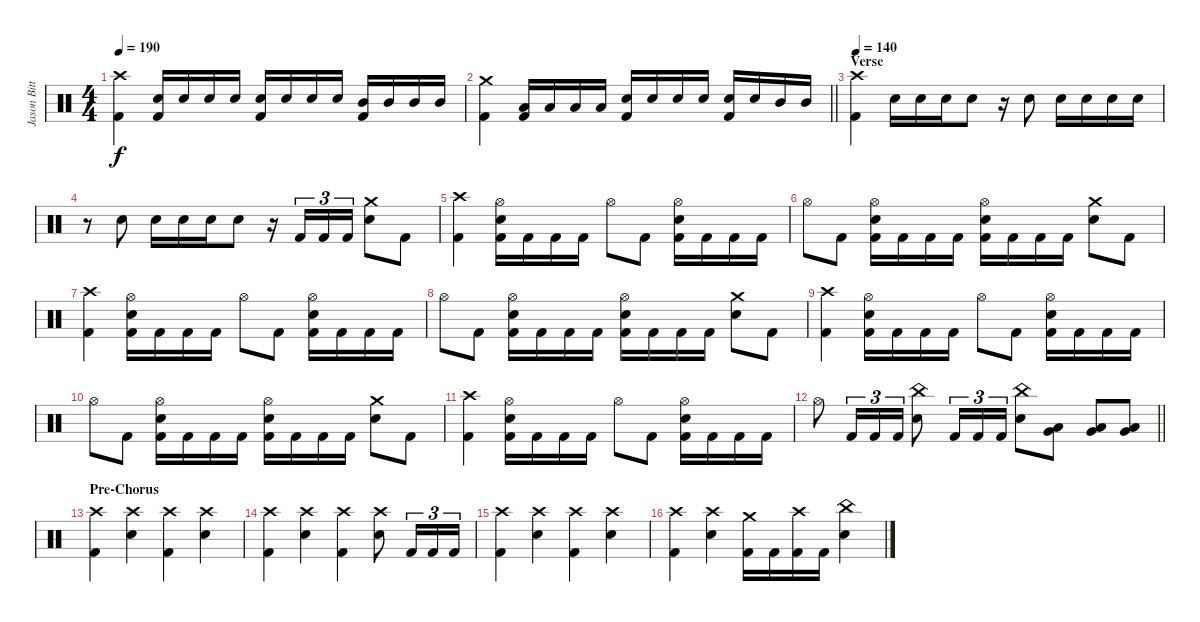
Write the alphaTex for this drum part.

\track ("Jason Bittner" "Jason Bitt") {instrument percussion}
\staff {score}
\articulation defaults
\ts (4 4)
\tempo 190
\clef neutral
\ks c
("Crash high (hit)" "Kick (hit) 2").4{dy f} ("Electric Snare (hit)" "Kick (hit) 2").16 "Electric Snare (hit)".16 "Electric Snare (hit)".16 "Electric Snare (hit)".16 ("Electric Snare (hit)" "Kick (hit) 2").16 "Electric Snare (hit)".16 "Electric Snare (hit)".16 "Electric Snare (hit)".16 ("Mid Tom (hit)" "Kick (hit) 2").16 "Mid Tom (hit)".16 "Mid Tom (hit)".16 "Mid Tom (hit)".16 |
\barLineRight lightlight
("Crash medium (hit)" "Kick (hit) 2").4 ("Low Tom (hit)" "Kick (hit) 2").16 "Low Tom (hit)".16 "Low Tom (hit)".16 "Low Tom (hit)".16 ("Electric Snare (hit)" "Kick (hit) 2").16 "Electric Snare (hit)".16 "Electric Snare (hit)".16 "Electric Snare (hit)".16 ("Electric Snare (hit)" "Kick (hit) 2").16 "Electric Snare (hit)".16 "Mid Tom (hit)".16 "Mid Tom (hit)".16 |
\section ("" "Verse")
\tempo 140
("Crash high (hit)" "Kick (hit) 2").4 "Electric Snare (hit)".16 "Electric Snare (hit)".16 "Electric Snare (hit)".16 "Electric Snare (hit)".8 r.16 "Electric Snare (hit)".8 "Electric Snare (hit)".16 "Electric Snare (hit)".16 "Electric Snare (hit)".16 "Electric Snare (hit)".16 |
r.8 "Electric Snare (hit)".8 "Electric Snare (hit)".16 "Electric Snare (hit)".16 "Electric Snare (hit)".16 "Electric Snare (hit)".8 r.16 "Kick (hit) 2".16{tu (3 2)} "Kick (hit) 2".16{tu (3 2)} "Kick (hit) 2".16{tu (3 2)} ("Crash medium (hit)" "Electric Snare (hit)").8 "Kick (hit) 2".8 |
("Crash high (hit)" "Kick (hit) 2").4 ("Hi-Hat (open)" "Electric Snare (hit)" "Kick (hit) 2").16 "Kick (hit) 2".16 "Kick (hit) 2".16 "Kick (hit) 2".16 "Hi-Hat (open)".8 "Kick (hit) 2".8 ("Hi-Hat (open)" "Electric Snare (hit)" "Kick (hit) 2").16 "Kick (hit) 2".16 "Kick (hit) 2".16 "Kick (hit) 2".16 |
"Hi-Hat (open)".8 "Kick (hit) 2".8 ("Hi-Hat (open)" "Electric Snare (hit)" "Kick (hit) 2").16 "Kick (hit) 2".16 "Kick (hit) 2".16 "Kick (hit) 2".16 ("Hi-Hat (open)" "Electric Snare (hit)" "Kick (hit) 2").16 "Kick (hit) 2".16 "Kick (hit) 2".16 "Kick (hit) 2".16 ("Crash medium (hit)" "Electric Snare (hit)").8 "Kick (hit) 2".8 |
("Crash high (hit)" "Kick (hit) 2").4 ("Hi-Hat (open)" "Electric Snare (hit)" "Kick (hit) 2").16 "Kick (hit) 2".16 "Kick (hit) 2".16 "Kick (hit) 2".16 "Hi-Hat (open)".8 "Kick (hit) 2".8 ("Hi-Hat (open)" "Electric Snare (hit)" "Kick (hit) 2").16 "Kick (hit) 2".16 "Kick (hit) 2".16 "Kick (hit) 2".16 |
"Hi-Hat (open)".8 "Kick (hit) 2".8 ("Hi-Hat (open)" "Electric Snare (hit)" "Kick (hit) 2").16 "Kick (hit) 2".16 "Kick (hit) 2".16 "Kick (hit) 2".16 ("Hi-Hat (open)" "Electric Snare (hit)" "Kick (hit) 2").16 "Kick (hit) 2".16 "Kick (hit) 2".16 "Kick (hit) 2".16 ("Crash medium (hit)" "Electric Snare (hit)").8 "Kick (hit) 2".8 |
("Crash high (hit)" "Kick (hit) 2").4 ("Hi-Hat (open)" "Electric Snare (hit)" "Kick (hit) 2").16 "Kick (hit) 2".16 "Kick (hit) 2".16 "Kick (hit) 2".16 "Hi-Hat (open)".8 "Kick (hit) 2".8 ("Hi-Hat (open)" "Electric Snare (hit)" "Kick (hit) 2").16 "Kick (hit) 2".16 "Kick (hit) 2".16 "Kick (hit) 2".16 |
"Hi-Hat (open)".8 "Kick (hit) 2".8 ("Hi-Hat (open)" "Electric Snare (hit)" "Kick (hit) 2").16 "Kick (hit) 2".16 "Kick (hit) 2".16 "Kick (hit) 2".16 ("Hi-Hat (open)" "Electric Snare (hit)" "Kick (hit) 2").16 "Kick (hit) 2".16 "Kick (hit) 2".16 "Kick (hit) 2".16 ("Crash medium (hit)" "Electric Snare (hit)").8 "Kick (hit) 2".8 |
("Crash high (hit)" "Kick (hit) 2").4 ("Hi-Hat (open)" "Electric Snare (hit)" "Kick (hit) 2").16 "Kick (hit) 2".16 "Kick (hit) 2".16 "Kick (hit) 2".16 "Hi-Hat (open)".8 "Kick (hit) 2".8 ("Hi-Hat (open)" "Electric Snare (hit)" "Kick (hit) 2").16 "Kick (hit) 2".16 "Kick (hit) 2".16 "Kick (hit) 2".16 |
\barLineRight lightlight "Hi-Hat (open)".8 "Kick (hit) 2".16{tu (3 2)} "Kick (hit) 2".16{tu (3 2)} "Kick (hit) 2".16{tu (3 2)}
("China (hit)" "Electric Snare (hit)").8 "Kick (hit) 2".16{tu (3 2)} "Kick (hit) 2".16{tu (3 2)} "Kick (hit) 2".16{tu (3 2)} ("China (hit)" "Electric Snare (hit)").8 ("Low Tom (hit)" "Very Low Tom (hit)").8 ("Low Tom (hit)" "Very Low Tom (hit)").8 ("Low Tom (hit)" "Very Low Tom (hit)").8 |
\section ("" "Pre-Chorus")
("Crash high (hit)" "Kick (hit) 2").4 ("Crash high (hit)" "Electric Snare (hit)").4 ("Crash high (hit)" "Kick (hit) 2").4 ("Crash high (hit)" "Electric Snare (hit)").4 |
("Crash high (hit)" "Kick (hit) 2").4 ("Crash high (hit)" "Electric Snare (hit)").4 ("Crash high (hit)" "Kick (hit) 2").4 ("Crash high (hit)" "Electric Snare (hit)").8 "Kick (hit) 2".16{tu (3 2)} "Kick (hit) 2".16{tu (3 2)} "Kick (hit) 2".16{tu (3 2)} |
("Crash high (hit)" "Kick (hit) 2").4 ("Crash high (hit)" "Electric Snare (hit)").4 ("Crash high (hit)" "Kick (hit) 2").4 ("Crash high (hit)" "Electric Snare (hit)").4 |
("Crash high (hit)" "Kick (hit) 2").4 ("Crash high (hit)" "Electric Snare (hit)").4 ("Crash medium (hit)" "Kick (hit) 2").16 "Kick (hit) 2".16 ("Crash high (hit)" "Kick (hit) 2").16 "Kick (hit) 2".16 ("China (hit)" "Electric Snare (hit)").4
